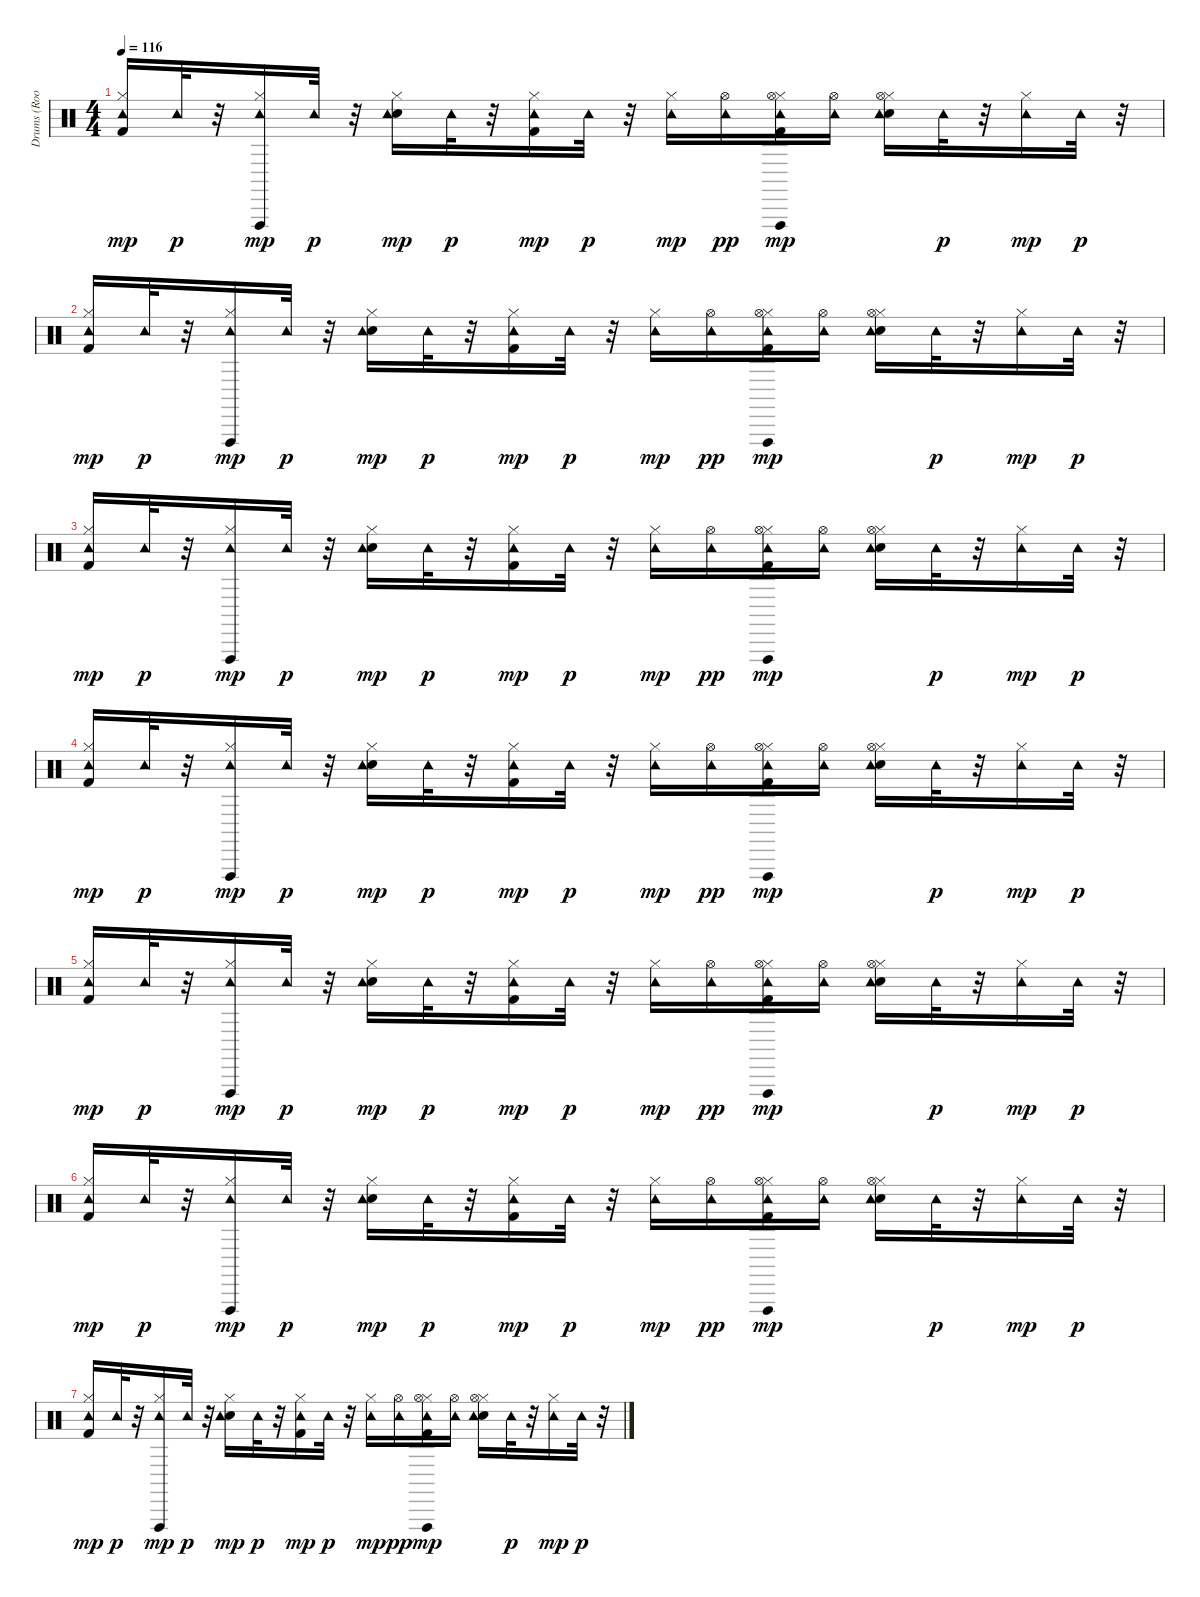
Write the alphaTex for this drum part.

\track ("Drums (Room Kit)    " "Drums (Roo") {instrument percussion}
\staff {score}
\articulation defaults
\ts (4 4)
\tempo 116
\clef neutral
\ks c
("Hi-Hat (closed)" "Kick (hit) 2" "Tambourine (hit)").16{dy mp volume 12} "Tambourine (hit)".32{dy p} r.32 ("Hi-Hat (closed)" "Tambourine (hit)" "Vibraslap (hit)").16{dy mp} "Tambourine (hit)".32{dy p} r.32 ("Hi-Hat (closed)" "Snare (hit) 2" "Tambourine (hit)").16{dy mp volume 12} "Tambourine (hit)".32{dy p} r.32 ("Hi-Hat (closed)" "Kick (hit) 2" "Tambourine (hit)").16{dy mp} "Tambourine (hit)".32{dy p} r.32 ("Hi-Hat (closed)" "Tambourine (hit)").16{dy mp volume 11} ("Tambourine (hit)" "Hi-Hat (open)").16{dy pp} ("Hi-Hat (closed)" "Kick (hit) 2" "Tambourine (hit)" "Hi-Hat (open)" "Vibraslap (hit)").16{dy mp} ("Tambourine (hit)" "Hi-Hat (open)").16 ("Hi-Hat (closed)" "Snare (hit) 2" "Tambourine (hit)" "Hi-Hat (open)").16{volume 11} "Tambourine (hit)".32{dy p} r.32 ("Hi-Hat (closed)" "Tambourine (hit)").16{dy mp} "Tambourine (hit)".32{dy p} r.32 |
("Kick (hit) 2" "Hi-Hat (closed)" "Tambourine (hit)").16{dy mp volume 10} "Tambourine (hit)".32{dy p} r.32 ("Hi-Hat (closed)" "Tambourine (hit)" "Vibraslap (hit)").16{dy mp} "Tambourine (hit)".32{dy p} r.32 ("Snare (hit) 2" "Hi-Hat (closed)" "Tambourine (hit)").16{dy mp volume 9} "Tambourine (hit)".32{dy p} r.32 ("Kick (hit) 2" "Hi-Hat (closed)" "Tambourine (hit)").16{dy mp} "Tambourine (hit)".32{dy p} r.32 ("Hi-Hat (closed)" "Tambourine (hit)").16{dy mp volume 9} ("Tambourine (hit)" "Hi-Hat (open)").16{dy pp} ("Kick (hit) 2" "Hi-Hat (closed)" "Tambourine (hit)" "Hi-Hat (open)" "Vibraslap (hit)").16{dy mp} ("Tambourine (hit)" "Hi-Hat (open)").16 ("Snare (hit) 2" "Hi-Hat (closed)" "Tambourine (hit)" "Hi-Hat (open)").16{volume 8} "Tambourine (hit)".32{dy p} r.32 ("Hi-Hat (closed)" "Tambourine (hit)").16{dy mp} "Tambourine (hit)".32{dy p} r.32 |
("Hi-Hat (closed)" "Kick (hit) 2" "Tambourine (hit)").16{dy mp volume 8} "Tambourine (hit)".32{dy p} r.32 ("Hi-Hat (closed)" "Tambourine (hit)" "Vibraslap (hit)").16{dy mp} "Tambourine (hit)".32{dy p} r.32 ("Hi-Hat (closed)" "Snare (hit) 2" "Tambourine (hit)").16{dy mp volume 7} "Tambourine (hit)".32{dy p} r.32 ("Hi-Hat (closed)" "Kick (hit) 2" "Tambourine (hit)").16{dy mp} "Tambourine (hit)".32{dy p} r.32 ("Hi-Hat (closed)" "Tambourine (hit)").16{dy mp volume 6} ("Tambourine (hit)" "Hi-Hat (open)").16{dy pp} ("Hi-Hat (closed)" "Kick (hit) 2" "Tambourine (hit)" "Hi-Hat (open)" "Vibraslap (hit)").16{dy mp} ("Tambourine (hit)" "Hi-Hat (open)").16 ("Hi-Hat (closed)" "Snare (hit) 2" "Tambourine (hit)" "Hi-Hat (open)").16{volume 6} "Tambourine (hit)".32{dy p} r.32 ("Hi-Hat (closed)" "Tambourine (hit)").16{dy mp} "Tambourine (hit)".32{dy p} r.32 |
("Kick (hit) 2" "Hi-Hat (closed)" "Tambourine (hit)").16{dy mp volume 5} "Tambourine (hit)".32{dy p} r.32 ("Hi-Hat (closed)" "Tambourine (hit)" "Vibraslap (hit)").16{dy mp} "Tambourine (hit)".32{dy p} r.32 ("Snare (hit) 2" "Hi-Hat (closed)" "Tambourine (hit)").16{dy mp volume 4} "Tambourine (hit)".32{dy p} r.32 ("Kick (hit) 2" "Hi-Hat (closed)" "Tambourine (hit)").16{dy mp} "Tambourine (hit)".32{dy p} r.32 ("Hi-Hat (closed)" "Tambourine (hit)").16{dy mp volume 4} ("Tambourine (hit)" "Hi-Hat (open)").16{dy pp} ("Kick (hit) 2" "Hi-Hat (closed)" "Tambourine (hit)" "Hi-Hat (open)" "Vibraslap (hit)").16{dy mp} ("Tambourine (hit)" "Hi-Hat (open)").16 ("Snare (hit) 2" "Hi-Hat (closed)" "Tambourine (hit)" "Hi-Hat (open)").16{volume 3} "Tambourine (hit)".32{dy p} r.32 ("Hi-Hat (closed)" "Tambourine (hit)").16{dy mp} "Tambourine (hit)".32{dy p} r.32 |
("Hi-Hat (closed)" "Kick (hit) 2" "Tambourine (hit)").16{dy mp volume 2} "Tambourine (hit)".32{dy p} r.32 ("Hi-Hat (closed)" "Tambourine (hit)" "Vibraslap (hit)").16{dy mp} "Tambourine (hit)".32{dy p} r.32 ("Hi-Hat (closed)" "Snare (hit) 2" "Tambourine (hit)").16{dy mp volume 2} "Tambourine (hit)".32{dy p} r.32 ("Hi-Hat (closed)" "Kick (hit) 2" "Tambourine (hit)").16{dy mp} "Tambourine (hit)".32{dy p} r.32 ("Hi-Hat (closed)" "Tambourine (hit)").16{dy mp volume 1} ("Tambourine (hit)" "Hi-Hat (open)").16{dy pp} ("Hi-Hat (closed)" "Kick (hit) 2" "Tambourine (hit)" "Hi-Hat (open)" "Vibraslap (hit)").16{dy mp} ("Tambourine (hit)" "Hi-Hat (open)").16 ("Hi-Hat (closed)" "Snare (hit) 2" "Tambourine (hit)" "Hi-Hat (open)").16{volume 1} "Tambourine (hit)".32{dy p} r.32 ("Hi-Hat (closed)" "Tambourine (hit)").16{dy mp} "Tambourine (hit)".32{dy p} r.32 |
("Kick (hit) 2" "Hi-Hat (closed)" "Tambourine (hit)").16{dy mp volume 0} "Tambourine (hit)".32{dy p} r.32 ("Hi-Hat (closed)" "Tambourine (hit)" "Vibraslap (hit)").16{dy mp} "Tambourine (hit)".32{dy p} r.32 ("Snare (hit) 2" "Hi-Hat (closed)" "Tambourine (hit)").16{dy mp} "Tambourine (hit)".32{dy p} r.32 ("Kick (hit) 2" "Hi-Hat (closed)" "Tambourine (hit)").16{dy mp} "Tambourine (hit)".32{dy p} r.32 ("Hi-Hat (closed)" "Tambourine (hit)").16{dy mp} ("Tambourine (hit)" "Hi-Hat (open)").16{dy pp} ("Kick (hit) 2" "Hi-Hat (closed)" "Tambourine (hit)" "Hi-Hat (open)" "Vibraslap (hit)").16{dy mp} ("Tambourine (hit)" "Hi-Hat (open)").16 ("Snare (hit) 2" "Hi-Hat (closed)" "Tambourine (hit)" "Hi-Hat (open)").16 "Tambourine (hit)".32{dy p} r.32 ("Hi-Hat (closed)" "Tambourine (hit)").16{dy mp} "Tambourine (hit)".32{dy p} r.32 |
("Hi-Hat (closed)" "Kick (hit) 2" "Tambourine (hit)").16{dy mp} "Tambourine (hit)".32{dy p} r.32 ("Hi-Hat (closed)" "Tambourine (hit)" "Vibraslap (hit)").16{dy mp} "Tambourine (hit)".32{dy p} r.32 ("Hi-Hat (closed)" "Snare (hit) 2" "Tambourine (hit)").16{dy mp} "Tambourine (hit)".32{dy p} r.32 ("Hi-Hat (closed)" "Kick (hit) 2" "Tambourine (hit)").16{dy mp} "Tambourine (hit)".32{dy p} r.32 ("Hi-Hat (closed)" "Tambourine (hit)").16{dy mp} ("Tambourine (hit)" "Hi-Hat (open)").16{dy pp} ("Hi-Hat (closed)" "Kick (hit) 2" "Tambourine (hit)" "Hi-Hat (open)" "Vibraslap (hit)").16{dy mp} ("Tambourine (hit)" "Hi-Hat (open)").16 ("Hi-Hat (closed)" "Snare (hit) 2" "Tambourine (hit)" "Hi-Hat (open)").16 "Tambourine (hit)".32{dy p} r.32 ("Hi-Hat (closed)" "Tambourine (hit)").16{dy mp} "Tambourine (hit)".32{dy p} r.32
